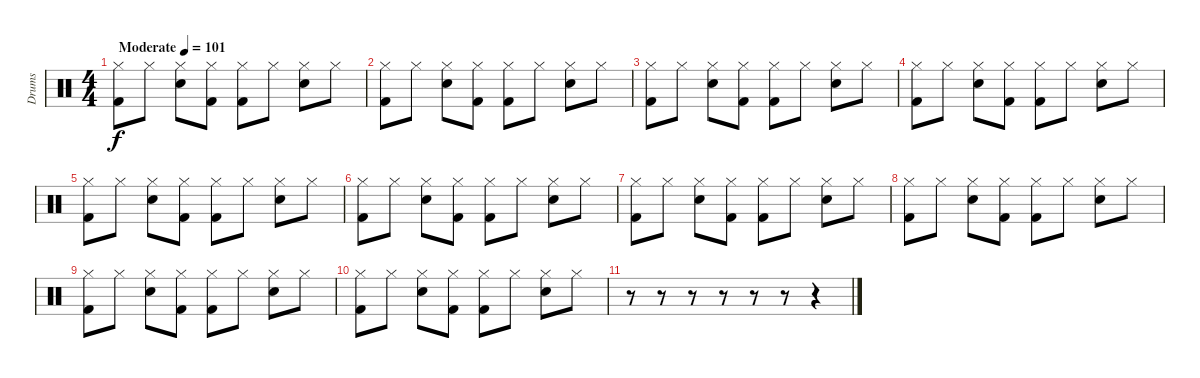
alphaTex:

\track ("Drums" "Drums") {instrument percussion}
\staff {score}
\articulation defaults
\ts (4 4)
\tempo (101 "Moderate")
\clef neutral
\ks c
("Kick (hit) 2" "Hi-Hat (closed)").8{dy f} "Hi-Hat (closed)".8 ("Snare (hit) 2" "Hi-Hat (closed)").8 ("Kick (hit) 2" "Hi-Hat (closed)").8 ("Kick (hit) 2" "Hi-Hat (closed)").8 "Hi-Hat (closed)".8 ("Snare (hit) 2" "Hi-Hat (closed)").8 "Hi-Hat (closed)".8 |
("Kick (hit) 2" "Hi-Hat (closed)").8 "Hi-Hat (closed)".8 ("Snare (hit) 2" "Hi-Hat (closed)").8 ("Kick (hit) 2" "Hi-Hat (closed)").8 ("Kick (hit) 2" "Hi-Hat (closed)").8 "Hi-Hat (closed)".8 ("Snare (hit) 2" "Hi-Hat (closed)").8 "Hi-Hat (closed)".8 |
("Kick (hit) 2" "Hi-Hat (closed)").8 "Hi-Hat (closed)".8 ("Snare (hit) 2" "Hi-Hat (closed)").8 ("Kick (hit) 2" "Hi-Hat (closed)").8 ("Kick (hit) 2" "Hi-Hat (closed)").8 "Hi-Hat (closed)".8 ("Snare (hit) 2" "Hi-Hat (closed)").8 "Hi-Hat (closed)".8 |
("Kick (hit) 2" "Hi-Hat (closed)").8 "Hi-Hat (closed)".8 ("Snare (hit) 2" "Hi-Hat (closed)").8 ("Kick (hit) 2" "Hi-Hat (closed)").8 ("Kick (hit) 2" "Hi-Hat (closed)").8 "Hi-Hat (closed)".8 ("Snare (hit) 2" "Hi-Hat (closed)").8 "Hi-Hat (closed)".8 |
("Kick (hit) 2" "Hi-Hat (closed)").8 "Hi-Hat (closed)".8 ("Snare (hit) 2" "Hi-Hat (closed)").8 ("Kick (hit) 2" "Hi-Hat (closed)").8 ("Kick (hit) 2" "Hi-Hat (closed)").8 "Hi-Hat (closed)".8 ("Snare (hit) 2" "Hi-Hat (closed)").8 "Hi-Hat (closed)".8 |
("Kick (hit) 2" "Hi-Hat (closed)").8 "Hi-Hat (closed)".8 ("Snare (hit) 2" "Hi-Hat (closed)").8 ("Kick (hit) 2" "Hi-Hat (closed)").8 ("Kick (hit) 2" "Hi-Hat (closed)").8 "Hi-Hat (closed)".8 ("Snare (hit) 2" "Hi-Hat (closed)").8 "Hi-Hat (closed)".8 |
("Kick (hit) 2" "Hi-Hat (closed)").8 "Hi-Hat (closed)".8 ("Snare (hit) 2" "Hi-Hat (closed)").8 ("Kick (hit) 2" "Hi-Hat (closed)").8 ("Kick (hit) 2" "Hi-Hat (closed)").8 "Hi-Hat (closed)".8 ("Snare (hit) 2" "Hi-Hat (closed)").8 "Hi-Hat (closed)".8 |
("Kick (hit) 2" "Hi-Hat (closed)").8 "Hi-Hat (closed)".8 ("Snare (hit) 2" "Hi-Hat (closed)").8 ("Kick (hit) 2" "Hi-Hat (closed)").8 ("Kick (hit) 2" "Hi-Hat (closed)").8 "Hi-Hat (closed)".8 ("Snare (hit) 2" "Hi-Hat (closed)").8 "Hi-Hat (closed)".8 |
("Kick (hit) 2" "Hi-Hat (closed)").8 "Hi-Hat (closed)".8 ("Snare (hit) 2" "Hi-Hat (closed)").8 ("Kick (hit) 2" "Hi-Hat (closed)").8 ("Kick (hit) 2" "Hi-Hat (closed)").8 "Hi-Hat (closed)".8 ("Snare (hit) 2" "Hi-Hat (closed)").8 "Hi-Hat (closed)".8 |
("Kick (hit) 2" "Hi-Hat (closed)").8 "Hi-Hat (closed)".8 ("Snare (hit) 2" "Hi-Hat (closed)").8 ("Kick (hit) 2" "Hi-Hat (closed)").8 ("Kick (hit) 2" "Hi-Hat (closed)").8 "Hi-Hat (closed)".8 ("Snare (hit) 2" "Hi-Hat (closed)").8 "Hi-Hat (closed)".8 |
r.8 r.8 r.8 r.8 r.8 r.8 r.4
